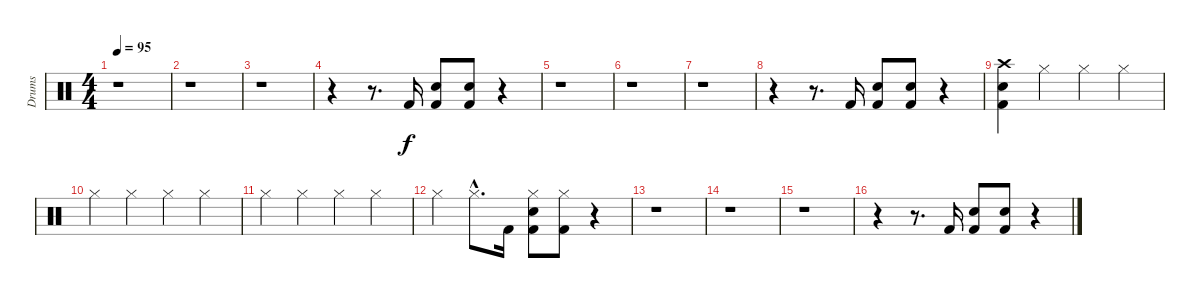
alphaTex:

\track ("Drums" "Drums") {instrument percussion}
\staff {score}
\articulation defaults
\ts (4 4)
\tempo 95
\clef neutral
\ks c
r.1{dy f} |
r.1 |
r.1 |
r.4 r.8{d} "Kick (hit) 2".16 ("Electric Snare (hit)" "Kick (hit) 2").8 ("Electric Snare (hit)" "Kick (hit) 2").8 r.4 |
r.1 |
r.1 |
r.1 |
r.4 r.8{d} "Kick (hit) 2".16 ("Electric Snare (hit)" "Kick (hit) 2").8 ("Electric Snare (hit)" "Kick (hit) 2").8 r.4 |
("Crash high (hit)" "Electric Snare (hit)" "Kick (hit) 2").4 "Hi-Hat (closed)".4 "Hi-Hat (closed)".4 "Hi-Hat (closed)".4 |
"Hi-Hat (closed)".4 "Hi-Hat (closed)".4 "Hi-Hat (closed)".4 "Hi-Hat (closed)".4 |
"Hi-Hat (closed)".4 "Hi-Hat (closed)".4 "Hi-Hat (closed)".4 "Hi-Hat (closed)".4 |
"Hi-Hat (closed)".4 "Hi-Hat (closed)"{hac}.8{d} "Kick (hit) 2".16 ("Electric Snare (hit)" "Hi-Hat (closed)" "Kick (hit) 2").8 ("Hi-Hat (closed)" "Kick (hit) 2").8 r.4 |
r.1 |
r.1 |
r.1 |
r.4 r.8{d} "Kick (hit) 2".16 ("Electric Snare (hit)" "Kick (hit) 2").8 ("Electric Snare (hit)" "Kick (hit) 2").8 r.4
